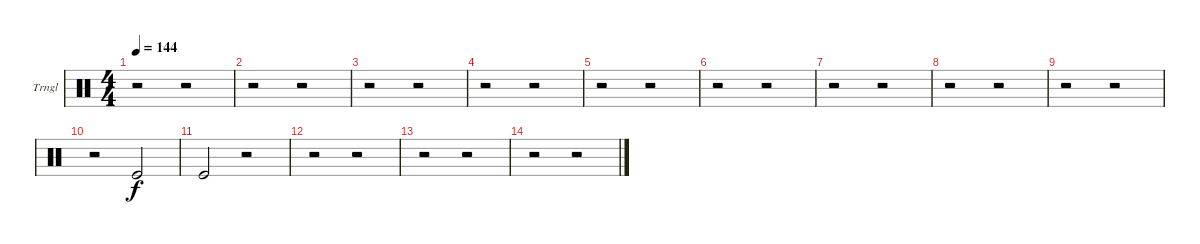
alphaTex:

\bracketExtendMode groupsimilarinstruments
\firstSystemTrackNameOrientation horizontal
\otherSystemsTrackNameOrientation horizontal
\track ("Triangle" "Trngl") {instrument percussion}
\staff {score}
\articulation defaults
\ts (4 4)
\tempo 144
\clef neutral
\ks c
r.2{dy f} r.2 |
r.2 r.2 |
r.2 r.2 |
r.2 r.2 |
r.2 r.2 |
r.2 r.2 |
r.2 r.2 |
r.2 r.2 |
r.2 r.2 |
r.2 "Kick (hit)".2 |
"Kick (hit)".2 r.2 |
r.2 r.2 |
r.2 r.2 |
r.2 r.2
